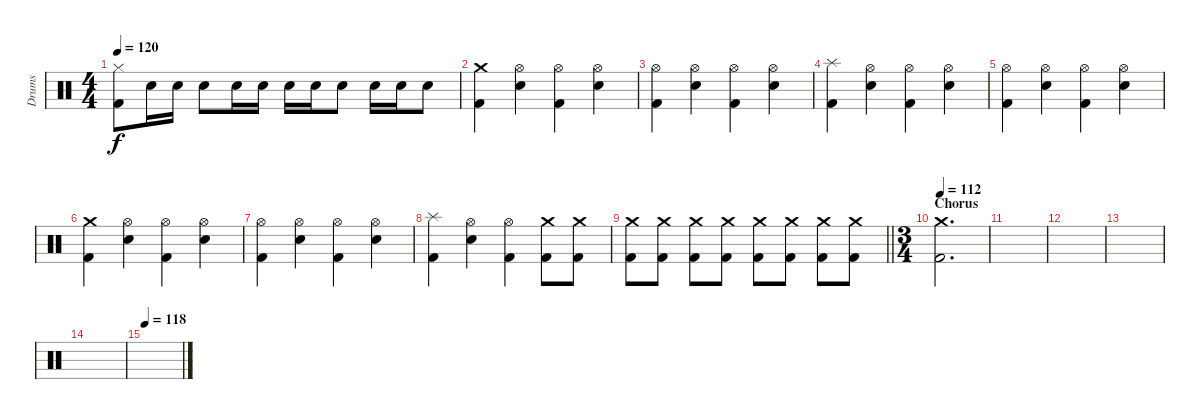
\track ("Drums" "Drums") {instrument percussion}
\staff {score}
\articulation defaults
\ts (4 4)
\tempo 120
\clef neutral
\ks c
("Hi-Hat (closed)" "Kick (hit) 2").8{dy f} "Electric Snare (hit)".16 "Electric Snare (hit)".16 "Electric Snare (hit)".8 "Electric Snare (hit)".16 "Electric Snare (hit)".16 "Electric Snare (hit)".16 "Electric Snare (hit)".16 "Electric Snare (hit)".8 "Electric Snare (hit)".16 "Electric Snare (hit)".16 "Electric Snare (hit)".8 |
("Crash medium (hit)" "Kick (hit) 2").4 ("Hi-Hat (open)" "Electric Snare (hit)").4 ("Hi-Hat (open)" "Kick (hit) 2").4 ("Hi-Hat (open)" "Electric Snare (hit)").4 |
("Hi-Hat (open)" "Kick (hit) 2").4 ("Hi-Hat (open)" "Electric Snare (hit)").4 ("Hi-Hat (open)" "Kick (hit) 2").4 ("Hi-Hat (open)" "Electric Snare (hit)").4 |
("Splash (hit)" "Kick (hit) 2").4 ("Hi-Hat (open)" "Electric Snare (hit)").4 ("Hi-Hat (open)" "Kick (hit) 2").4 ("Hi-Hat (open)" "Electric Snare (hit)").4 |
("Hi-Hat (open)" "Kick (hit) 2").4 ("Hi-Hat (open)" "Electric Snare (hit)").4 ("Hi-Hat (open)" "Kick (hit) 2").4 ("Hi-Hat (open)" "Electric Snare (hit)").4 |
("Crash medium (hit)" "Kick (hit) 2").4 ("Hi-Hat (open)" "Electric Snare (hit)").4 ("Hi-Hat (open)" "Kick (hit) 2").4 ("Hi-Hat (open)" "Electric Snare (hit)").4 |
("Hi-Hat (open)" "Kick (hit) 2").4 ("Hi-Hat (open)" "Electric Snare (hit)").4 ("Hi-Hat (open)" "Kick (hit) 2").4 ("Hi-Hat (open)" "Electric Snare (hit)").4 |
("Splash (hit)" "Kick (hit) 2").4 ("Hi-Hat (open)" "Electric Snare (hit)").4 ("Hi-Hat (open)" "Kick (hit) 2").4 ("Crash medium (hit)" "Kick (hit) 2").8 ("Crash medium (hit)" "Kick (hit) 2").8 |
\barLineRight lightlight
("Crash medium (hit)" "Kick (hit) 2").8 ("Crash medium (hit)" "Kick (hit) 2").8 ("Crash medium (hit)" "Kick (hit) 2").8 ("Crash medium (hit)" "Kick (hit) 2").8 ("Crash medium (hit)" "Kick (hit) 2").8 ("Crash medium (hit)" "Kick (hit) 2").8 ("Crash medium (hit)" "Kick (hit) 2").8 ("Crash medium (hit)" "Kick (hit) 2").8 |
\ts (3 4)
\section ("" "Chorus")
\tempo 112
("Crash medium (hit)" "Kick (hit) 2").2{d} |
|
|
|
|
\tempo 118
